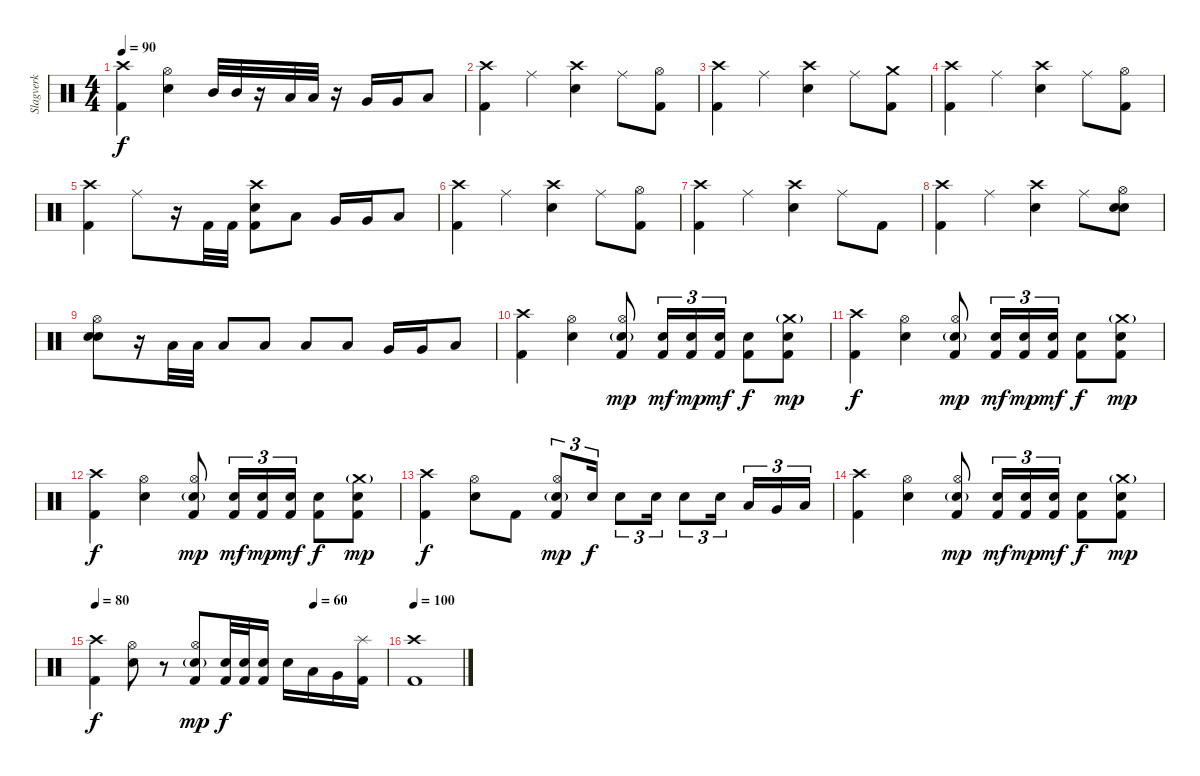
\track ("Slagverk" "Slagverk") {instrument percussion}
\staff {score}
\articulation defaults
\ts (4 4)
\tempo 90
\clef neutral
\ks c
("Crash high (hit)" "Kick (hit) 2").4{dy f} ("Hi-Hat (open)" "Electric Snare (hit)").4 "Mid Tom (hit)".32 "Mid Tom (hit)".32 r.16 "Low Tom (hit)".32 "Low Tom (hit)".32 r.16 "Very Low Tom (hit)".16 "Very Low Tom (hit)".16 "Low Floor Tom (hit)".8 |
("Crash high (hit)" "Kick (hit) 2").4 "Ride (middle)".4 ("Crash high (hit)" "Electric Snare (hit)").4 "Ride (middle)".8 ("Hi-Hat (open)" "Kick (hit) 2").8 |
("Crash high (hit)" "Kick (hit) 2").4 "Ride (middle)".4 ("Crash high (hit)" "Electric Snare (hit)").4 "Ride (middle)".8 ("Crash medium (hit)" "Kick (hit) 2").8 |
("Crash high (hit)" "Kick (hit) 2").4 "Ride (middle)".4 ("Crash high (hit)" "Electric Snare (hit)").4 "Ride (middle)".8 ("Hi-Hat (open)" "Kick (hit) 2").8 |
("Crash high (hit)" "Kick (hit) 2").4 "Ride (middle)".8 r.16 "Kick (hit) 2".32 "Kick (hit) 2".32 ("Crash high (hit)" "Electric Snare (hit)" "Kick (hit) 2").8 "Low Tom (hit)".8 "Very Low Tom (hit)".16 "Very Low Tom (hit)".16 "Low Floor Tom (hit)".8 |
("Crash high (hit)" "Kick (hit) 2").4 "Ride (middle)".4 ("Crash high (hit)" "Electric Snare (hit)").4 "Ride (middle)".8 ("Hi-Hat (open)" "Kick (hit) 2").8 |
("Crash high (hit)" "Kick (hit) 2").4 "Ride (middle)".4 ("Crash high (hit)" "Electric Snare (hit)").4 "Ride (middle)".8 "Kick (hit) 2".8 |
("Crash high (hit)" "Kick (hit) 2").4 "Ride (middle)".4 ("Crash high (hit)" "Electric Snare (hit)").4 "Ride (middle)".8 ("Hi-Hat (open)" "Electric Snare (hit)" "Electric Snare (hit)").8 |
("Hi-Hat (open)" "Electric Snare (hit)" "Electric Snare (hit)").8 r.16 "Low Tom (hit)".32 "Low Tom (hit)".32 "Low Tom (hit)".8 "Low Tom (hit)".8 "Low Tom (hit)".8 "Low Tom (hit)".8 "Very Low Tom (hit)".16 "Very Low Tom (hit)".16 "Low Floor Tom (hit)".8 |
("Crash high (hit)" "Kick (hit) 2").4 ("Hi-Hat (open)" "Electric Snare (hit)").4 ("Hi-Hat (open)" "Electric Snare (hit)"{g} "Kick (hit) 2").8{dy mp} ("Electric Snare (hit)" "Kick (hit) 2").16{tu (3 2) dy mf} ("Electric Snare (hit)" "Kick (hit) 2").16{tu (3 2) dy mp} ("Electric Snare (hit)" "Kick (hit) 2").16{tu (3 2) dy mf} ("Electric Snare (hit)" "Kick (hit) 2").8{dy f} ("Crash medium (hit)"{g} "Electric Snare (hit)" "Kick (hit) 2").8{dy mp} |
("Crash high (hit)" "Kick (hit) 2").4{dy f} ("Hi-Hat (open)" "Electric Snare (hit)").4 ("Hi-Hat (open)" "Electric Snare (hit)"{g} "Kick (hit) 2").8{dy mp} ("Electric Snare (hit)" "Kick (hit) 2").16{tu (3 2) dy mf} ("Electric Snare (hit)" "Kick (hit) 2").16{tu (3 2) dy mp} ("Electric Snare (hit)" "Kick (hit) 2").16{tu (3 2) dy mf} ("Electric Snare (hit)" "Kick (hit) 2").8{dy f} ("Crash medium (hit)"{g} "Electric Snare (hit)" "Kick (hit) 2").8{dy mp} |
("Crash high (hit)" "Kick (hit) 2").4{dy f} ("Hi-Hat (open)" "Electric Snare (hit)").4 ("Hi-Hat (open)" "Electric Snare (hit)"{g} "Kick (hit) 2").8{dy mp} ("Electric Snare (hit)" "Kick (hit) 2").16{tu (3 2) dy mf} ("Electric Snare (hit)" "Kick (hit) 2").16{tu (3 2) dy mp} ("Electric Snare (hit)" "Kick (hit) 2").16{tu (3 2) dy mf} ("Electric Snare (hit)" "Kick (hit) 2").8{dy f} ("Crash medium (hit)"{g} "Electric Snare (hit)" "Kick (hit) 2").8{dy mp} |
("Crash high (hit)" "Kick (hit) 2").4{dy f} ("Hi-Hat (open)" "Electric Snare (hit)").8 "Kick (hit) 2".8 ("Hi-Hat (open)" "Electric Snare (hit)"{g} "Kick (hit) 2").8{tu (3 2) dy mp} "Electric Snare (hit)".16{tu (3 2) dy f} "Electric Snare (hit)".8{tu (3 2)} "Electric Snare (hit)".16{tu (3 2)} "Electric Snare (hit)".8{tu (3 2)} "Electric Snare (hit)".16{tu (3 2)} "Low Tom (hit)".16{tu (3 2)} "Very Low Tom (hit)".16{tu (3 2)} "Low Floor Tom (hit)".16{tu (3 2)} |
("Crash high (hit)" "Kick (hit) 2").4 ("Hi-Hat (open)" "Electric Snare (hit)").4 ("Hi-Hat (open)" "Electric Snare (hit)"{g} "Kick (hit) 2").8{dy mp} ("Electric Snare (hit)" "Kick (hit) 2").16{tu (3 2) dy mf} ("Electric Snare (hit)" "Kick (hit) 2").16{tu (3 2) dy mp} ("Electric Snare (hit)" "Kick (hit) 2").16{tu (3 2) dy mf} ("Electric Snare (hit)" "Kick (hit) 2").8{dy f} ("Crash medium (hit)"{g} "Electric Snare (hit)" "Kick (hit) 2").8{dy mp} |
\tempo 80
\tempo (60 0.75)
("Crash high (hit)" "Kick (hit) 2").4{dy f} ("Hi-Hat (open)" "Electric Snare (hit)").8 r.8 ("Hi-Hat (open)" "Electric Snare (hit)"{g} "Kick (hit) 2").8{dy mp} ("Electric Snare (hit)" "Kick (hit) 2").32{dy f} ("Electric Snare (hit)" "Kick (hit) 2").32 ("Electric Snare (hit)" "Kick (hit) 2").16 "Electric Snare (hit)".16 "Low Tom (hit)".16 "Very Low Tom (hit)".16 ("Splash (hit)" "Kick (hit) 2").16 |
\tempo 100
("Crash high (hit)" "Kick (hit) 2").1
